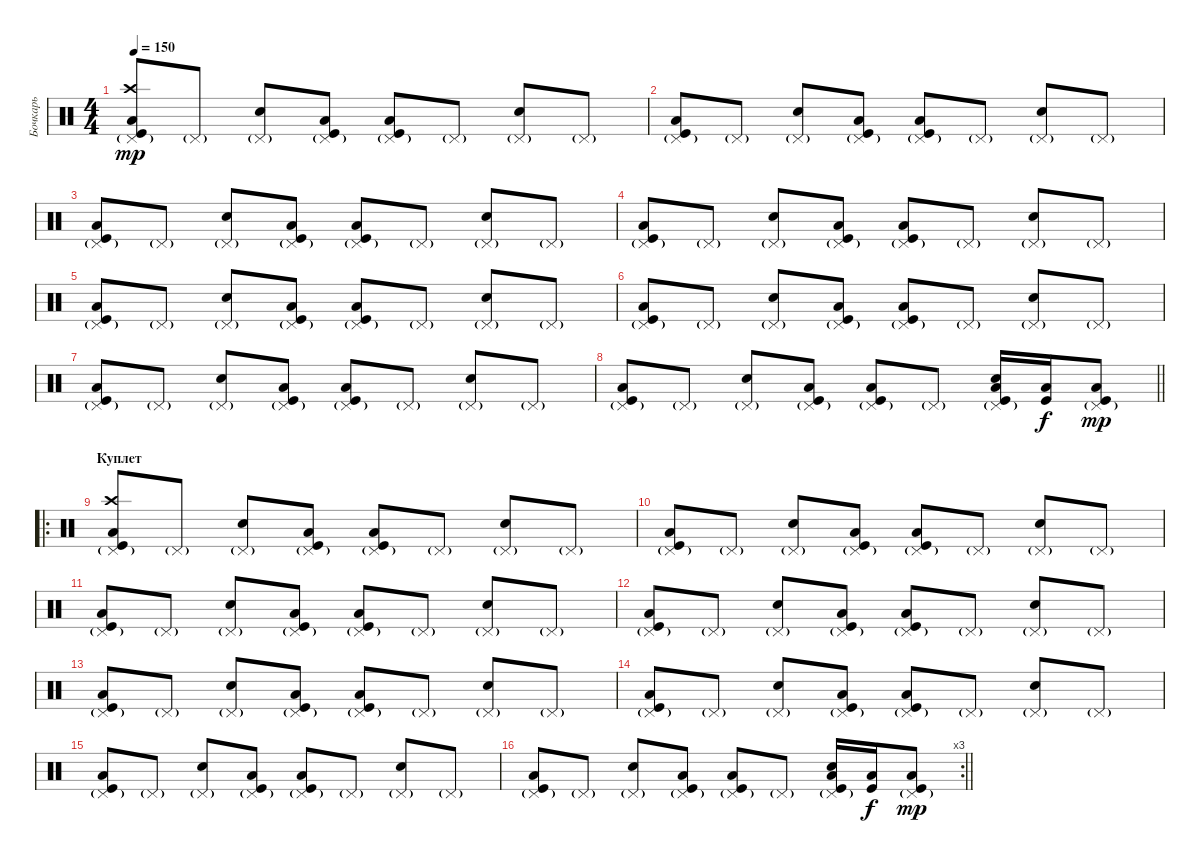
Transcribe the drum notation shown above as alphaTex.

\track ("Бочкарь" "Бочкарь") {instrument percussion}
\staff {score}
\articulation defaults
\ts (4 4)
\tempo 150
\clef neutral
\ks c
("Pedal Hi-Hat (hit)"{g} "Crash high (hit)" "Low Tom (hit)" "Kick (hit)").8{dy mp} "Pedal Hi-Hat (hit)"{g}.8 ("Pedal Hi-Hat (hit)"{g} "Electric Snare (hit)").8 ("Pedal Hi-Hat (hit)"{g} "Low Tom (hit)" "Kick (hit)").8 ("Pedal Hi-Hat (hit)"{g} "Low Tom (hit)" "Kick (hit)").8 "Pedal Hi-Hat (hit)"{g}.8 ("Pedal Hi-Hat (hit)"{g} "Electric Snare (hit)").8 "Pedal Hi-Hat (hit)"{g}.8 |
("Pedal Hi-Hat (hit)"{g} "Low Tom (hit)" "Kick (hit)").8 "Pedal Hi-Hat (hit)"{g}.8 ("Pedal Hi-Hat (hit)"{g} "Electric Snare (hit)").8 ("Pedal Hi-Hat (hit)"{g} "Low Tom (hit)" "Kick (hit)").8 ("Pedal Hi-Hat (hit)"{g} "Low Tom (hit)" "Kick (hit)").8 "Pedal Hi-Hat (hit)"{g}.8 ("Pedal Hi-Hat (hit)"{g} "Electric Snare (hit)").8 "Pedal Hi-Hat (hit)"{g}.8 |
("Pedal Hi-Hat (hit)"{g} "Low Tom (hit)" "Kick (hit)").8 "Pedal Hi-Hat (hit)"{g}.8 ("Pedal Hi-Hat (hit)"{g} "Electric Snare (hit)").8 ("Pedal Hi-Hat (hit)"{g} "Low Tom (hit)" "Kick (hit)").8 ("Pedal Hi-Hat (hit)"{g} "Low Tom (hit)" "Kick (hit)").8 "Pedal Hi-Hat (hit)"{g}.8 ("Pedal Hi-Hat (hit)"{g} "Electric Snare (hit)").8 "Pedal Hi-Hat (hit)"{g}.8 |
("Pedal Hi-Hat (hit)"{g} "Low Tom (hit)" "Kick (hit)").8 "Pedal Hi-Hat (hit)"{g}.8 ("Pedal Hi-Hat (hit)"{g} "Electric Snare (hit)").8 ("Pedal Hi-Hat (hit)"{g} "Low Tom (hit)" "Kick (hit)").8 ("Pedal Hi-Hat (hit)"{g} "Low Tom (hit)" "Kick (hit)").8 "Pedal Hi-Hat (hit)"{g}.8 ("Pedal Hi-Hat (hit)"{g} "Electric Snare (hit)").8 "Pedal Hi-Hat (hit)"{g}.8 |
("Pedal Hi-Hat (hit)"{g} "Low Tom (hit)" "Kick (hit)").8 "Pedal Hi-Hat (hit)"{g}.8 ("Pedal Hi-Hat (hit)"{g} "Electric Snare (hit)").8 ("Pedal Hi-Hat (hit)"{g} "Low Tom (hit)" "Kick (hit)").8 ("Pedal Hi-Hat (hit)"{g} "Low Tom (hit)" "Kick (hit)").8 "Pedal Hi-Hat (hit)"{g}.8 ("Pedal Hi-Hat (hit)"{g} "Electric Snare (hit)").8 "Pedal Hi-Hat (hit)"{g}.8 |
("Pedal Hi-Hat (hit)"{g} "Low Tom (hit)" "Kick (hit)").8 "Pedal Hi-Hat (hit)"{g}.8 ("Pedal Hi-Hat (hit)"{g} "Electric Snare (hit)").8 ("Pedal Hi-Hat (hit)"{g} "Low Tom (hit)" "Kick (hit)").8 ("Pedal Hi-Hat (hit)"{g} "Low Tom (hit)" "Kick (hit)").8 "Pedal Hi-Hat (hit)"{g}.8 ("Pedal Hi-Hat (hit)"{g} "Electric Snare (hit)").8 "Pedal Hi-Hat (hit)"{g}.8 |
("Pedal Hi-Hat (hit)"{g} "Low Tom (hit)" "Kick (hit)").8 "Pedal Hi-Hat (hit)"{g}.8 ("Pedal Hi-Hat (hit)"{g} "Electric Snare (hit)").8 ("Pedal Hi-Hat (hit)"{g} "Low Tom (hit)" "Kick (hit)").8 ("Pedal Hi-Hat (hit)"{g} "Low Tom (hit)" "Kick (hit)").8 "Pedal Hi-Hat (hit)"{g}.8 ("Pedal Hi-Hat (hit)"{g} "Electric Snare (hit)").8 "Pedal Hi-Hat (hit)"{g}.8 |
\barLineRight lightlight
("Pedal Hi-Hat (hit)"{g} "Low Tom (hit)" "Kick (hit)").8 "Pedal Hi-Hat (hit)"{g}.8 ("Pedal Hi-Hat (hit)"{g} "Electric Snare (hit)").8 ("Pedal Hi-Hat (hit)"{g} "Low Tom (hit)" "Kick (hit)").8 ("Pedal Hi-Hat (hit)"{g} "Low Tom (hit)" "Kick (hit)").8 "Pedal Hi-Hat (hit)"{g}.8 ("Pedal Hi-Hat (hit)"{g} "Electric Snare (hit)" "Low Tom (hit)" "Kick (hit)").16 ("Low Tom (hit)" "Kick (hit)").16{dy f} ("Pedal Hi-Hat (hit)"{g} "Low Tom (hit)" "Kick (hit)").8{dy mp} |
\ro
\section ("" "Куплет")
("Pedal Hi-Hat (hit)"{g} "Crash high (hit)" "Low Tom (hit)" "Kick (hit)").8 "Pedal Hi-Hat (hit)"{g}.8 ("Pedal Hi-Hat (hit)"{g} "Electric Snare (hit)").8 ("Pedal Hi-Hat (hit)"{g} "Low Tom (hit)" "Kick (hit)").8 ("Pedal Hi-Hat (hit)"{g} "Low Tom (hit)" "Kick (hit)").8 "Pedal Hi-Hat (hit)"{g}.8 ("Pedal Hi-Hat (hit)"{g} "Electric Snare (hit)").8 "Pedal Hi-Hat (hit)"{g}.8 |
("Pedal Hi-Hat (hit)"{g} "Low Tom (hit)" "Kick (hit)").8 "Pedal Hi-Hat (hit)"{g}.8 ("Pedal Hi-Hat (hit)"{g} "Electric Snare (hit)").8 ("Pedal Hi-Hat (hit)"{g} "Low Tom (hit)" "Kick (hit)").8 ("Pedal Hi-Hat (hit)"{g} "Low Tom (hit)" "Kick (hit)").8 "Pedal Hi-Hat (hit)"{g}.8 ("Pedal Hi-Hat (hit)"{g} "Electric Snare (hit)").8 "Pedal Hi-Hat (hit)"{g}.8 |
("Pedal Hi-Hat (hit)"{g} "Low Tom (hit)" "Kick (hit)").8 "Pedal Hi-Hat (hit)"{g}.8 ("Pedal Hi-Hat (hit)"{g} "Electric Snare (hit)").8 ("Pedal Hi-Hat (hit)"{g} "Low Tom (hit)" "Kick (hit)").8 ("Pedal Hi-Hat (hit)"{g} "Low Tom (hit)" "Kick (hit)").8 "Pedal Hi-Hat (hit)"{g}.8 ("Pedal Hi-Hat (hit)"{g} "Electric Snare (hit)").8 "Pedal Hi-Hat (hit)"{g}.8 |
("Pedal Hi-Hat (hit)"{g} "Low Tom (hit)" "Kick (hit)").8 "Pedal Hi-Hat (hit)"{g}.8 ("Pedal Hi-Hat (hit)"{g} "Electric Snare (hit)").8 ("Pedal Hi-Hat (hit)"{g} "Low Tom (hit)" "Kick (hit)").8 ("Pedal Hi-Hat (hit)"{g} "Low Tom (hit)" "Kick (hit)").8 "Pedal Hi-Hat (hit)"{g}.8 ("Pedal Hi-Hat (hit)"{g} "Electric Snare (hit)").8 "Pedal Hi-Hat (hit)"{g}.8 |
("Pedal Hi-Hat (hit)"{g} "Low Tom (hit)" "Kick (hit)").8 "Pedal Hi-Hat (hit)"{g}.8 ("Pedal Hi-Hat (hit)"{g} "Electric Snare (hit)").8 ("Pedal Hi-Hat (hit)"{g} "Low Tom (hit)" "Kick (hit)").8 ("Pedal Hi-Hat (hit)"{g} "Low Tom (hit)" "Kick (hit)").8 "Pedal Hi-Hat (hit)"{g}.8 ("Pedal Hi-Hat (hit)"{g} "Electric Snare (hit)").8 "Pedal Hi-Hat (hit)"{g}.8 |
("Pedal Hi-Hat (hit)"{g} "Low Tom (hit)" "Kick (hit)").8 "Pedal Hi-Hat (hit)"{g}.8 ("Pedal Hi-Hat (hit)"{g} "Electric Snare (hit)").8 ("Pedal Hi-Hat (hit)"{g} "Low Tom (hit)" "Kick (hit)").8 ("Pedal Hi-Hat (hit)"{g} "Low Tom (hit)" "Kick (hit)").8 "Pedal Hi-Hat (hit)"{g}.8 ("Pedal Hi-Hat (hit)"{g} "Electric Snare (hit)").8 "Pedal Hi-Hat (hit)"{g}.8 |
("Pedal Hi-Hat (hit)"{g} "Low Tom (hit)" "Kick (hit)").8 "Pedal Hi-Hat (hit)"{g}.8 ("Pedal Hi-Hat (hit)"{g} "Electric Snare (hit)").8 ("Pedal Hi-Hat (hit)"{g} "Low Tom (hit)" "Kick (hit)").8 ("Pedal Hi-Hat (hit)"{g} "Low Tom (hit)" "Kick (hit)").8 "Pedal Hi-Hat (hit)"{g}.8 ("Pedal Hi-Hat (hit)"{g} "Electric Snare (hit)").8 "Pedal Hi-Hat (hit)"{g}.8 |
\rc 3
\barLineRight lightlight
("Pedal Hi-Hat (hit)"{g} "Low Tom (hit)" "Kick (hit)").8 "Pedal Hi-Hat (hit)"{g}.8 ("Pedal Hi-Hat (hit)"{g} "Electric Snare (hit)").8 ("Pedal Hi-Hat (hit)"{g} "Low Tom (hit)" "Kick (hit)").8 ("Pedal Hi-Hat (hit)"{g} "Low Tom (hit)" "Kick (hit)").8 "Pedal Hi-Hat (hit)"{g}.8 ("Pedal Hi-Hat (hit)"{g} "Electric Snare (hit)" "Low Tom (hit)" "Kick (hit)").16 ("Low Tom (hit)" "Kick (hit)").16{dy f} ("Pedal Hi-Hat (hit)"{g} "Low Tom (hit)" "Kick (hit)").8{dy mp}
